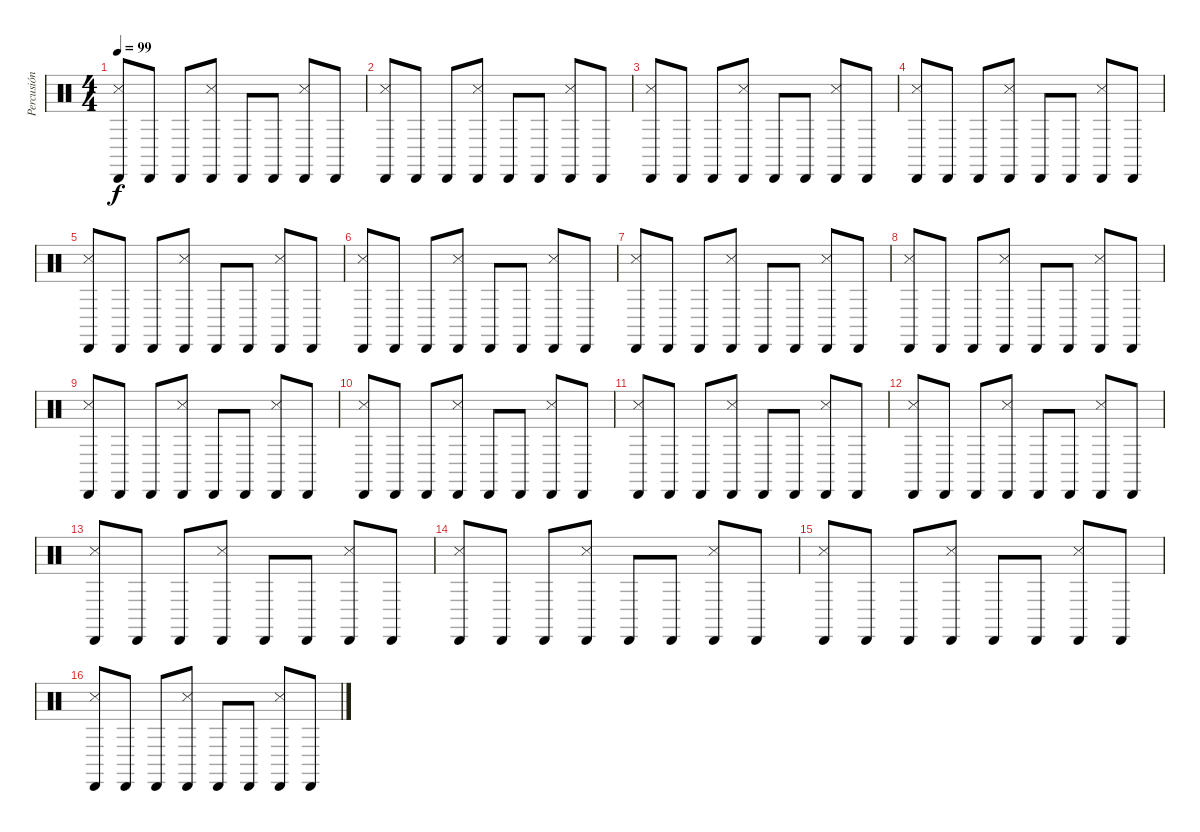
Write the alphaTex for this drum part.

\track ("Percusión" "Percusión") {instrument percussion}
\staff {score}
\articulation defaults
\ts (4 4)
\tempo 99
\clef neutral
\ks c
("Cabasa (hit)" "Metronome (hit)").8{dy f} "Cabasa (hit)".8 "Cabasa (hit)".8 ("Cabasa (hit)" "Metronome (hit)").8 "Cabasa (hit)".8 "Cabasa (hit)".8 ("Cabasa (hit)" "Metronome (hit)").8 "Cabasa (hit)".8 |
("Cabasa (hit)" "Metronome (hit)").8 "Cabasa (hit)".8 "Cabasa (hit)".8 ("Cabasa (hit)" "Metronome (hit)").8 "Cabasa (hit)".8 "Cabasa (hit)".8 ("Cabasa (hit)" "Metronome (hit)").8 "Cabasa (hit)".8 |
("Cabasa (hit)" "Metronome (hit)").8 "Cabasa (hit)".8 "Cabasa (hit)".8 ("Cabasa (hit)" "Metronome (hit)").8 "Cabasa (hit)".8 "Cabasa (hit)".8 ("Cabasa (hit)" "Metronome (hit)").8 "Cabasa (hit)".8 |
("Cabasa (hit)" "Metronome (hit)").8 "Cabasa (hit)".8 "Cabasa (hit)".8 ("Cabasa (hit)" "Metronome (hit)").8 "Cabasa (hit)".8 "Cabasa (hit)".8 ("Cabasa (hit)" "Metronome (hit)").8 "Cabasa (hit)".8 |
("Cabasa (hit)" "Metronome (hit)").8 "Cabasa (hit)".8 "Cabasa (hit)".8 ("Cabasa (hit)" "Metronome (hit)").8 "Cabasa (hit)".8 "Cabasa (hit)".8 ("Cabasa (hit)" "Metronome (hit)").8 "Cabasa (hit)".8 |
("Cabasa (hit)" "Metronome (hit)").8 "Cabasa (hit)".8 "Cabasa (hit)".8 ("Cabasa (hit)" "Metronome (hit)").8 "Cabasa (hit)".8 "Cabasa (hit)".8 ("Cabasa (hit)" "Metronome (hit)").8 "Cabasa (hit)".8 |
("Cabasa (hit)" "Metronome (hit)").8 "Cabasa (hit)".8 "Cabasa (hit)".8 ("Cabasa (hit)" "Metronome (hit)").8 "Cabasa (hit)".8 "Cabasa (hit)".8 ("Cabasa (hit)" "Metronome (hit)").8 "Cabasa (hit)".8 |
("Cabasa (hit)" "Metronome (hit)").8 "Cabasa (hit)".8 "Cabasa (hit)".8 ("Cabasa (hit)" "Metronome (hit)").8 "Cabasa (hit)".8 "Cabasa (hit)".8 ("Cabasa (hit)" "Metronome (hit)").8 "Cabasa (hit)".8 |
("Cabasa (hit)" "Metronome (hit)").8 "Cabasa (hit)".8 "Cabasa (hit)".8 ("Cabasa (hit)" "Metronome (hit)").8 "Cabasa (hit)".8 "Cabasa (hit)".8 ("Cabasa (hit)" "Metronome (hit)").8 "Cabasa (hit)".8 |
("Cabasa (hit)" "Metronome (hit)").8 "Cabasa (hit)".8 "Cabasa (hit)".8 ("Cabasa (hit)" "Metronome (hit)").8 "Cabasa (hit)".8 "Cabasa (hit)".8 ("Cabasa (hit)" "Metronome (hit)").8 "Cabasa (hit)".8 |
("Cabasa (hit)" "Metronome (hit)").8 "Cabasa (hit)".8 "Cabasa (hit)".8 ("Cabasa (hit)" "Metronome (hit)").8 "Cabasa (hit)".8 "Cabasa (hit)".8 ("Cabasa (hit)" "Metronome (hit)").8 "Cabasa (hit)".8 |
("Cabasa (hit)" "Metronome (hit)").8 "Cabasa (hit)".8 "Cabasa (hit)".8 ("Cabasa (hit)" "Metronome (hit)").8 "Cabasa (hit)".8 "Cabasa (hit)".8 ("Cabasa (hit)" "Metronome (hit)").8 "Cabasa (hit)".8 |
("Cabasa (hit)" "Metronome (hit)").8 "Cabasa (hit)".8 "Cabasa (hit)".8 ("Cabasa (hit)" "Metronome (hit)").8 "Cabasa (hit)".8 "Cabasa (hit)".8 ("Cabasa (hit)" "Metronome (hit)").8 "Cabasa (hit)".8 |
("Cabasa (hit)" "Metronome (hit)").8 "Cabasa (hit)".8 "Cabasa (hit)".8 ("Cabasa (hit)" "Metronome (hit)").8 "Cabasa (hit)".8 "Cabasa (hit)".8 ("Cabasa (hit)" "Metronome (hit)").8 "Cabasa (hit)".8 |
("Cabasa (hit)" "Metronome (hit)").8 "Cabasa (hit)".8 "Cabasa (hit)".8 ("Cabasa (hit)" "Metronome (hit)").8 "Cabasa (hit)".8 "Cabasa (hit)".8 ("Cabasa (hit)" "Metronome (hit)").8 "Cabasa (hit)".8 |
("Cabasa (hit)" "Metronome (hit)").8 "Cabasa (hit)".8 "Cabasa (hit)".8 ("Cabasa (hit)" "Metronome (hit)").8 "Cabasa (hit)".8 "Cabasa (hit)".8 ("Cabasa (hit)" "Metronome (hit)").8 "Cabasa (hit)".8
